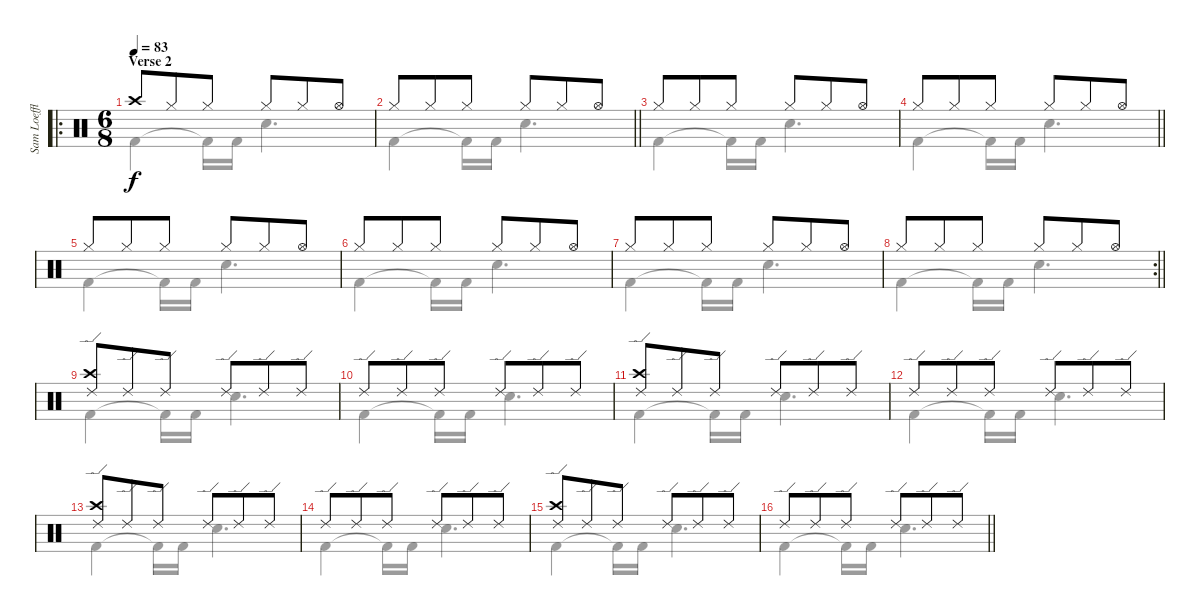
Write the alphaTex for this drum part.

\track ("Sam Loeffler" "Sam Loeffl") {instrument percussion}
\staff {score}
\articulation defaults
\voice
\ro
\ts (6 8)
\section ("" "Verse 2")
\tempo 83
\clef neutral
\ks c "Crash high (hit)".8{dy f} "Hi-Hat (closed)".8 "Hi-Hat (closed)".8 "Hi-Hat (closed)".8 "Hi-Hat (closed)".8 "Hi-Hat (open)".8
|
\barLineRight lightlight "Hi-Hat (closed)".8 "Hi-Hat (closed)".8 "Hi-Hat (closed)".8 "Hi-Hat (closed)".8 "Hi-Hat (closed)".8 "Hi-Hat (open)".8
|
"Hi-Hat (closed)".8 "Hi-Hat (closed)".8 "Hi-Hat (closed)".8 "Hi-Hat (closed)".8 "Hi-Hat (closed)".8 "Hi-Hat (open)".8 |
\barLineRight lightlight "Hi-Hat (closed)".8 "Hi-Hat (closed)".8 "Hi-Hat (closed)".8 "Hi-Hat (closed)".8 "Hi-Hat (closed)".8 "Hi-Hat (open)".8
|
"Hi-Hat (closed)".8 "Hi-Hat (closed)".8 "Hi-Hat (closed)".8 "Hi-Hat (closed)".8 "Hi-Hat (closed)".8 "Hi-Hat (open)".8 |
"Hi-Hat (closed)".8 "Hi-Hat (closed)".8 "Hi-Hat (closed)".8 "Hi-Hat (closed)".8 "Hi-Hat (closed)".8 "Hi-Hat (open)".8 |
"Hi-Hat (closed)".8 "Hi-Hat (closed)".8 "Hi-Hat (closed)".8 "Hi-Hat (closed)".8 "Hi-Hat (closed)".8 "Hi-Hat (open)".8 |
\rc 2
\barLineRight lightlight "Hi-Hat (closed)".8 "Hi-Hat (closed)".8 "Hi-Hat (closed)".8 "Hi-Hat (closed)".8 "Hi-Hat (closed)".8 "Hi-Hat (open)".8
|
("Crash high (hit)" "Ride (edge) 2").8 "Ride (edge) 2".8 "Ride (edge) 2".8 "Ride (edge) 2".8 "Ride (edge) 2".8 "Ride (edge) 2".8 |
"Ride (edge) 2".8 "Ride (edge) 2".8 "Ride (edge) 2".8 "Ride (edge) 2".8 "Ride (edge) 2".8 "Ride (edge) 2".8 |
("Crash high (hit)" "Ride (edge) 2").8 "Ride (edge) 2".8 "Ride (edge) 2".8 "Ride (edge) 2".8 "Ride (edge) 2".8 "Ride (edge) 2".8 |
"Ride (edge) 2".8 "Ride (edge) 2".8 "Ride (edge) 2".8 "Ride (edge) 2".8 "Ride (edge) 2".8 "Ride (edge) 2".8 |
("Crash high (hit)" "Ride (edge) 2").8 "Ride (edge) 2".8 "Ride (edge) 2".8 "Ride (edge) 2".8 "Ride (edge) 2".8 "Ride (edge) 2".8 |
"Ride (edge) 2".8 "Ride (edge) 2".8 "Ride (edge) 2".8 "Ride (edge) 2".8 "Ride (edge) 2".8 "Ride (edge) 2".8 |
("Crash high (hit)" "Ride (edge) 2").8 "Ride (edge) 2".8 "Ride (edge) 2".8 "Ride (edge) 2".8 "Ride (edge) 2".8 "Ride (edge) 2".8 |
\barLineRight lightlight "Ride (edge) 2".8 "Ride (edge) 2".8 "Ride (edge) 2".8 "Ride (edge) 2".8 "Ride (edge) 2".8 "Ride (edge) 2".8
\voice
\clef neutral
\ottava regular
\simile none
\ks c "Kick (hit) 2".4{dy f} "Kick (hit) 2"{t}.16 "Kick (hit) 2".16 "Electric Snare (hit)".4{d}
|
\barLineRight lightlight "Kick (hit) 2".4 "Kick (hit) 2"{t}.16 "Kick (hit) 2".16 "Electric Snare (hit)".4{d}
|
"Kick (hit) 2".4 "Kick (hit) 2"{t}.16 "Kick (hit) 2".16 "Electric Snare (hit)".4{d} |
\barLineRight lightlight "Kick (hit) 2".4 "Kick (hit) 2"{t}.16 "Kick (hit) 2".16 "Electric Snare (hit)".4{d}
|
"Kick (hit) 2".4 "Kick (hit) 2"{t}.16 "Kick (hit) 2".16 "Electric Snare (hit)".4{d} |
"Kick (hit) 2".4 "Kick (hit) 2"{t}.16 "Kick (hit) 2".16 "Electric Snare (hit)".4{d} |
"Kick (hit) 2".4 "Kick (hit) 2"{t}.16 "Kick (hit) 2".16 "Electric Snare (hit)".4{d} |
\barLineRight lightlight "Kick (hit) 2".4 "Kick (hit) 2"{t}.16 "Kick (hit) 2".16 "Electric Snare (hit)".4{d}
|
"Kick (hit) 2".4 "Kick (hit) 2"{t}.16 "Kick (hit) 2".16 "Electric Snare (hit)".4{d} |
"Kick (hit) 2".4 "Kick (hit) 2"{t}.16 "Kick (hit) 2".16 "Electric Snare (hit)".4{d} |
"Kick (hit) 2".4 "Kick (hit) 2"{t}.16 "Kick (hit) 2".16 "Electric Snare (hit)".4{d} |
"Kick (hit) 2".4 "Kick (hit) 2"{t}.16 "Kick (hit) 2".16 "Electric Snare (hit)".4{d} |
"Kick (hit) 2".4 "Kick (hit) 2"{t}.16 "Kick (hit) 2".16 "Electric Snare (hit)".4{d} |
"Kick (hit) 2".4 "Kick (hit) 2"{t}.16 "Kick (hit) 2".16 "Electric Snare (hit)".4{d} |
"Kick (hit) 2".4 "Kick (hit) 2"{t}.16 "Kick (hit) 2".16 "Electric Snare (hit)".4{d} |
\barLineRight lightlight "Kick (hit) 2".4 "Kick (hit) 2"{t}.16 "Kick (hit) 2".16 "Electric Snare (hit)".4{d}
